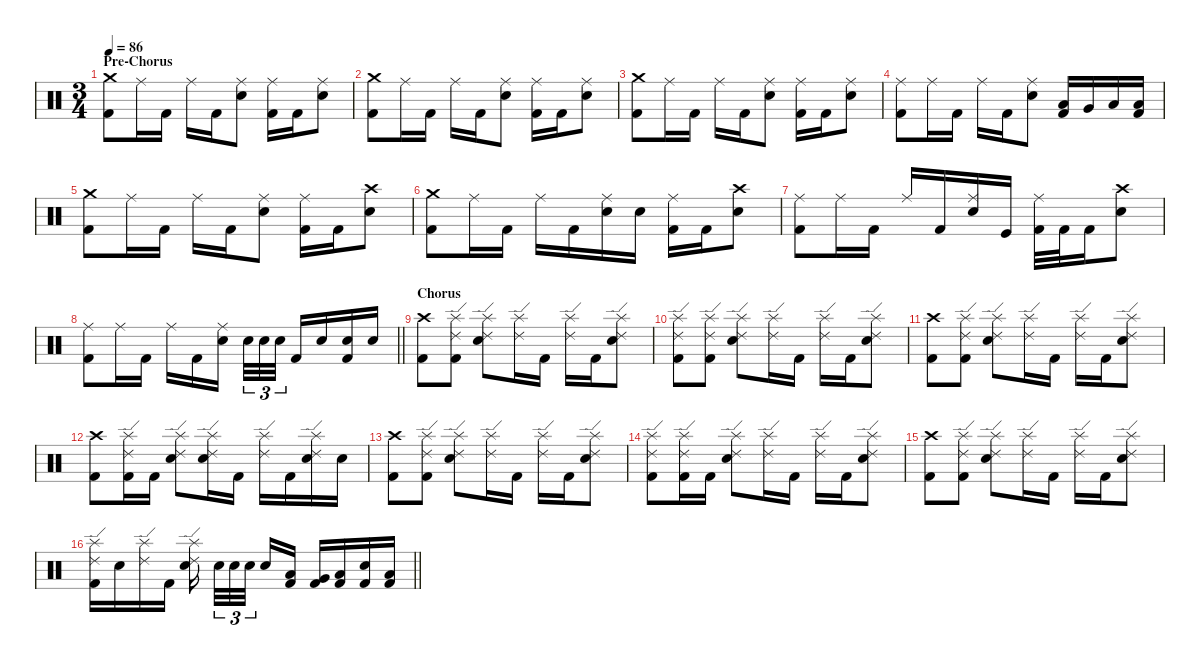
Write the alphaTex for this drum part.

\defaultSystemsLayout 4
\hideDynamics
\bracketExtendMode nobrackets
\singleTrackTrackNamePolicy hidden
\multiTrackTrackNamePolicy hidden
\otherSystemsTrackNameOrientation horizontal
\track ("Drums" "drm.") {instrument percussion}
\staff {score}
\articulation defaults
\ts (3 4)
\beaming (8 2 2 2)
\section ("" "Pre-Chorus")
\tempo 86
\clef neutral
\ks c
("Crash medium (hit)" "Kick (hit) 2").8{dy f beam Down} "Ride (middle)".16{beam Down} "Kick (hit) 2".16{beam Down} "Ride (middle)".16{beam Down} "Kick (hit) 2".16{beam Down} ("Ride (middle)" "Snare (hit) 2").8{beam Down} ("Ride (middle)" "Kick (hit) 2").16{beam Down} "Kick (hit) 2".16{beam Down} ("Ride (middle)" "Snare (hit) 2").8{beam Down} |
("Crash medium (hit)" "Kick (hit) 2").8{beam Down} "Ride (middle)".16{beam Down} "Kick (hit) 2".16{beam Down} "Ride (middle)".16{beam Down} "Kick (hit) 2".16{beam Down} ("Ride (middle)" "Snare (hit) 2").8{beam Down} ("Ride (middle)" "Kick (hit) 2").16{beam Down} "Kick (hit) 2".16{beam Down} ("Ride (middle)" "Snare (hit) 2").8{beam Down} |
("Crash medium (hit)" "Kick (hit) 2").8{beam Down} "Ride (middle)".16{beam Down} "Kick (hit) 2".16{beam Down} "Ride (middle)".16{beam Down} "Kick (hit) 2".16{beam Down} ("Ride (middle)" "Snare (hit) 2").8{beam Down} ("Ride (middle)" "Kick (hit) 2").16{beam Down} "Kick (hit) 2".16{beam Down} ("Ride (middle)" "Snare (hit) 2").8{beam Down} |
("Ride (middle)" "Kick (hit) 2").8{beam Down} "Ride (middle)".16{beam Down} "Kick (hit) 2".16{beam Down} "Ride (middle)".16{beam Down} "Kick (hit) 2".16{beam Down} ("Ride (middle)" "Snare (hit) 2").8{beam Down} ("Low Tom (hit)" "Kick (hit) 2").16{beam Up} "Very Low Tom (hit)".16{beam Up} "Low Floor Tom (hit)".16{beam Up} ("Low Floor Tom (hit)" "Kick (hit) 2").16{beam Up} |
("Crash medium (hit)" "Kick (hit) 2").8{beam Down} "Ride (middle)".16{beam Down} "Kick (hit) 2".16{beam Down} "Ride (middle)".16{beam Down} "Kick (hit) 2".16{beam Down} ("Ride (middle)" "Snare (hit) 2").8{beam Down} ("Ride (middle)" "Kick (hit) 2").16{beam Down} "Kick (hit) 2".16{beam Down} ("Crash high (hit)" "Snare (hit) 2").8{beam Down} |
("Crash medium (hit)" "Kick (hit) 2").8{beam Down} "Ride (middle)".16{beam Down} "Kick (hit) 2".16{beam Down} "Ride (middle)".16{beam Down} "Kick (hit) 2".16{beam Down} ("Ride (middle)" "Snare (hit) 2").16{beam Down} "Snare (hit) 2".16{beam Down} ("Ride (middle)" "Kick (hit) 2").16{beam Down} "Kick (hit) 2".16{beam Down} ("Crash high (hit)" "Snare (hit) 2").8{beam Down} |
("Ride (middle)" "Kick (hit) 2").8{beam Down} "Ride (middle)".16{beam Down} "Kick (hit) 2".16{beam Down} "Ride (middle)".16{beam Up} "Kick (hit) 2".16{beam Up} ("Ride (middle)" "Snare (hit) 2").16{beam Up} "Kick (hit)".16{beam Up} ("Ride (middle)" "Kick (hit) 2").32{beam Down} "Kick (hit) 2".32{beam Down} "Kick (hit) 2".16{beam Down} ("Crash high (hit)" "Snare (hit) 2").8{beam Down} |
\barLineRight lightlight
("Ride (middle)" "Kick (hit) 2").8{beam Down} "Ride (middle)".16{beam Down} "Kick (hit) 2".16{beam Down} "Ride (middle)".16{beam Down} "Kick (hit) 2".16{beam Down} ("Ride (middle)" "Snare (hit) 2").16{beam Down} "Snare (hit) 2".32{tu (3 2) beam Down} "Snare (hit) 2".32{tu (3 2) beam Down} "Snare (hit) 2".32{tu (3 2) beam Down} "Kick (hit) 2".16{beam Up} "Snare (hit) 2".16{beam Up} ("Snare (hit) 2" "Kick (hit) 2").16{beam Up} "Snare (hit) 2".16{beam Up} |
\section ("" "Chorus")
("Crash high (hit)" "Kick (hit) 2").8{beam Down} ("Ride (edge) 2" "Splash (hit)" "Kick (hit) 2").8{beam Down} ("Ride (edge) 2" "Splash (hit)" "Snare (hit) 2").8{beam Down} ("Ride (edge) 2" "Splash (hit)").16{beam Down} "Kick (hit) 2".16{beam Down} ("Ride (edge) 2" "Splash (hit)").16{beam Down} "Kick (hit) 2".16{beam Down} ("Ride (edge) 2" "Splash (hit)" "Snare (hit) 2").8{beam Down} |
("Ride (edge) 2" "Splash (hit)" "Kick (hit) 2").8{beam Down} ("Ride (edge) 2" "Splash (hit)" "Kick (hit) 2").8{beam Down} ("Ride (edge) 2" "Splash (hit)" "Snare (hit) 2").8{beam Down} ("Ride (edge) 2" "Splash (hit)").16{beam Down} "Kick (hit) 2".16{beam Down} ("Ride (edge) 2" "Splash (hit)").16{beam Down} "Kick (hit) 2".16{beam Down} ("Ride (edge) 2" "Splash (hit)" "Snare (hit) 2").8{beam Down} |
("Crash high (hit)" "Kick (hit) 2").8{beam Down} ("Ride (edge) 2" "Splash (hit)" "Kick (hit) 2").8{beam Down} ("Ride (edge) 2" "Splash (hit)" "Snare (hit) 2").8{beam Down} ("Ride (edge) 2" "Splash (hit)").16{beam Down} "Kick (hit) 2".16{beam Down} ("Ride (edge) 2" "Splash (hit)").16{beam Down} "Kick (hit) 2".16{beam Down} ("Ride (edge) 2" "Splash (hit)" "Snare (hit) 2").8{beam Down} |
("Crash high (hit)" "Kick (hit) 2").8{beam Down} ("Ride (edge) 2" "Splash (hit)" "Kick (hit) 2").16{beam Down} "Kick (hit) 2".16{beam Down} ("Ride (edge) 2" "Splash (hit)" "Snare (hit) 2").8{beam Down} ("Ride (edge) 2" "Splash (hit)" "Snare (hit) 2").16{beam Down} "Kick (hit) 2".16{beam Down} ("Ride (edge) 2" "Splash (hit)").16{beam Down} "Kick (hit) 2".16{beam Down} ("Ride (edge) 2" "Splash (hit)" "Snare (hit) 2").16{beam Down} "Snare (hit) 2".16{beam Down} |
("Crash high (hit)" "Kick (hit) 2").8{beam Down} ("Ride (edge) 2" "Splash (hit)" "Kick (hit) 2").8{beam Down} ("Ride (edge) 2" "Splash (hit)" "Snare (hit) 2").8{beam Down} ("Ride (edge) 2" "Splash (hit)").16{beam Down} "Kick (hit) 2".16{beam Down} ("Ride (edge) 2" "Splash (hit)").16{beam Down} "Kick (hit) 2".16{beam Down} ("Ride (edge) 2" "Splash (hit)" "Snare (hit) 2").8{beam Down} |
("Ride (edge) 2" "Splash (hit)" "Kick (hit) 2").8{beam Down} ("Ride (edge) 2" "Splash (hit)" "Kick (hit) 2").16{beam Down} "Kick (hit) 2".16{beam Down} ("Ride (edge) 2" "Splash (hit)" "Snare (hit) 2").8{beam Down} ("Ride (edge) 2" "Splash (hit)").16{beam Down} "Kick (hit) 2".16{beam Down} ("Ride (edge) 2" "Splash (hit)").16{beam Down} "Kick (hit) 2".16{beam Down} ("Ride (edge) 2" "Splash (hit)" "Snare (hit) 2").8{beam Down} |
("Crash high (hit)" "Kick (hit) 2").8{beam Down} ("Ride (edge) 2" "Splash (hit)" "Kick (hit) 2").8{beam Down} ("Ride (edge) 2" "Splash (hit)" "Snare (hit) 2").8{beam Down} ("Ride (edge) 2" "Splash (hit)").16{beam Down} "Kick (hit) 2".16{beam Down} ("Ride (edge) 2" "Splash (hit)").16{beam Down} "Kick (hit) 2".16{beam Down} ("Ride (edge) 2" "Splash (hit)" "Snare (hit) 2").8{beam Down} |
\barLineRight lightlight
("Ride (edge) 2" "Splash (hit)" "Kick (hit) 2").16{beam Down} "Snare (hit) 2".16{beam Down} ("Ride (edge) 2" "Splash (hit)").16{beam Down} "Kick (hit) 2".16{beam Down} ("Ride (edge) 2" "Splash (hit)" "Snare (hit) 2").16{beam Down} "Snare (hit) 2".32{tu (3 2) beam Down} "Snare (hit) 2".32{tu (3 2) beam Down} "Snare (hit) 2".32{tu (3 2) beam Down} "Snare (hit) 2".16{beam Up} ("Low Tom (hit)" "Kick (hit) 2").16{beam Up} ("Very Low Tom (hit)" "Kick (hit) 2").16{beam Up} ("Low Floor Tom (hit)" "Kick (hit) 2").16{beam Up} ("Snare (hit) 2" "Kick (hit) 2").16{beam Up} ("Low Floor Tom (hit)" "Kick (hit) 2").16{beam Up}
